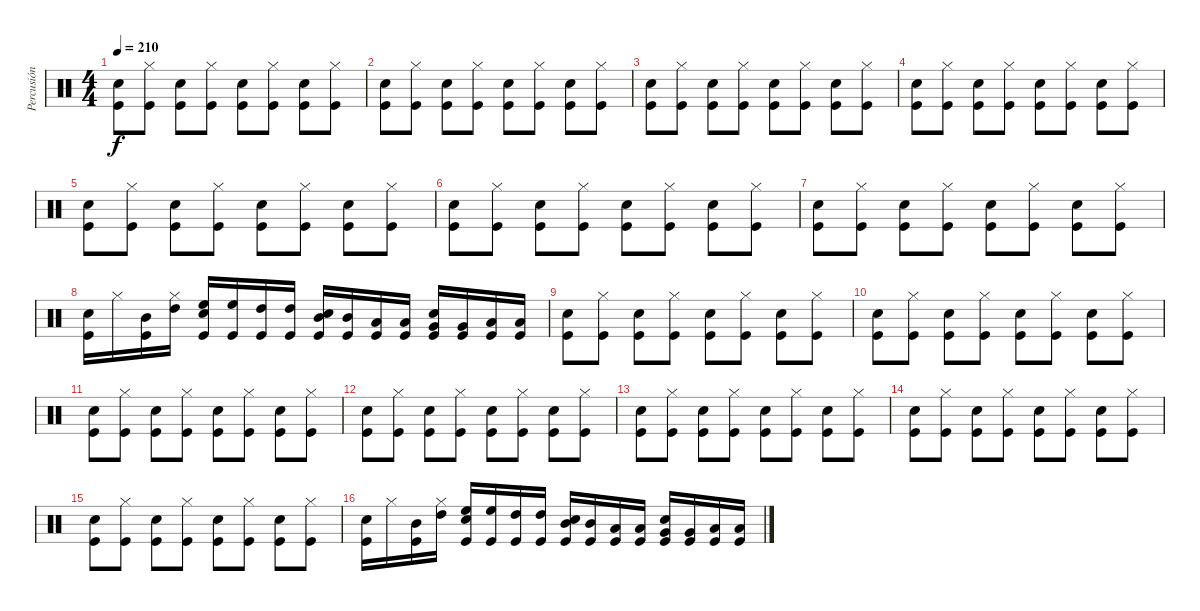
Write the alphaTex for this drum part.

\track ("Percusión" "Percusión") {instrument percussion}
\staff {score}
\articulation defaults
\ts (4 4)
\tempo 210
\clef neutral
\ks c
("Snare (hit) 2" "Kick (hit)").8{dy f} ("Hi-Hat (closed)" "Kick (hit)").8 ("Snare (hit) 2" "Kick (hit)").8 ("Hi-Hat (closed)" "Kick (hit)").8 ("Snare (hit) 2" "Kick (hit)").8 ("Hi-Hat (closed)" "Kick (hit)").8 ("Snare (hit) 2" "Kick (hit)").8 ("Hi-Hat (closed)" "Kick (hit)").8 |
("Snare (hit) 2" "Kick (hit)").8 ("Hi-Hat (closed)" "Kick (hit)").8 ("Snare (hit) 2" "Kick (hit)").8 ("Hi-Hat (closed)" "Kick (hit)").8 ("Snare (hit) 2" "Kick (hit)").8 ("Hi-Hat (closed)" "Kick (hit)").8 ("Snare (hit) 2" "Kick (hit)").8 ("Hi-Hat (closed)" "Kick (hit)").8 |
("Snare (hit) 2" "Kick (hit)").8 ("Hi-Hat (closed)" "Kick (hit)").8 ("Snare (hit) 2" "Kick (hit)").8 ("Hi-Hat (closed)" "Kick (hit)").8 ("Snare (hit) 2" "Kick (hit)").8 ("Hi-Hat (closed)" "Kick (hit)").8 ("Snare (hit) 2" "Kick (hit)").8 ("Hi-Hat (closed)" "Kick (hit)").8 |
("Snare (hit) 2" "Kick (hit)").8 ("Hi-Hat (closed)" "Kick (hit)").8 ("Snare (hit) 2" "Kick (hit)").8 ("Hi-Hat (closed)" "Kick (hit)").8 ("Snare (hit) 2" "Kick (hit)").8 ("Hi-Hat (closed)" "Kick (hit)").8 ("Snare (hit) 2" "Kick (hit)").8 ("Hi-Hat (closed)" "Kick (hit)").8 |
("Snare (hit) 2" "Kick (hit)").8 ("Hi-Hat (closed)" "Kick (hit)").8 ("Snare (hit) 2" "Kick (hit)").8 ("Hi-Hat (closed)" "Kick (hit)").8 ("Snare (hit) 2" "Kick (hit)").8 ("Hi-Hat (closed)" "Kick (hit)").8 ("Snare (hit) 2" "Kick (hit)").8 ("Hi-Hat (closed)" "Kick (hit)").8 |
("Snare (hit) 2" "Kick (hit)").8 ("Hi-Hat (closed)" "Kick (hit)").8 ("Snare (hit) 2" "Kick (hit)").8 ("Hi-Hat (closed)" "Kick (hit)").8 ("Snare (hit) 2" "Kick (hit)").8 ("Hi-Hat (closed)" "Kick (hit)").8 ("Snare (hit) 2" "Kick (hit)").8 ("Hi-Hat (closed)" "Kick (hit)").8 |
("Snare (hit) 2" "Kick (hit)").8 ("Hi-Hat (closed)" "Kick (hit)").8 ("Snare (hit) 2" "Kick (hit)").8 ("Hi-Hat (closed)" "Kick (hit)").8 ("Snare (hit) 2" "Kick (hit)").8 ("Hi-Hat (closed)" "Kick (hit)").8 ("Snare (hit) 2" "Kick (hit)").8 ("Hi-Hat (closed)" "Kick (hit)").8 |
("Snare (hit) 2" "Kick (hit)").16 "Hi-Hat (closed)".16 ("Mid Tom (hit)" "Kick (hit)").16 ("Hi-Hat (closed)" "High Tom (hit)").16 ("High Floor Tom (hit)" "Snare (hit) 2" "Kick (hit)").16 ("High Floor Tom (hit)" "Kick (hit)").16 ("High Tom (hit)" "Kick (hit)").16 ("High Tom (hit)" "Kick (hit)").16 ("Mid Tom (hit)" "Snare (hit) 2" "Kick (hit)").16 ("Mid Tom (hit)" "Kick (hit)").16 ("Low Tom (hit)" "Kick (hit)").16 ("Low Tom (hit)" "Kick (hit)").16 ("Very Low Tom (hit)" "Snare (hit) 2" "Kick (hit)").16 ("Very Low Tom (hit)" "Kick (hit)").16 ("Low Floor Tom (hit)" "Kick (hit)").16 ("Low Floor Tom (hit)" "Kick (hit)").16 |
("Snare (hit) 2" "Kick (hit)").8 ("Hi-Hat (closed)" "Kick (hit)").8 ("Snare (hit) 2" "Kick (hit)").8 ("Hi-Hat (closed)" "Kick (hit)").8 ("Snare (hit) 2" "Kick (hit)").8 ("Hi-Hat (closed)" "Kick (hit)").8 ("Snare (hit) 2" "Kick (hit)").8 ("Hi-Hat (closed)" "Kick (hit)").8 |
("Snare (hit) 2" "Kick (hit)").8 ("Hi-Hat (closed)" "Kick (hit)").8 ("Snare (hit) 2" "Kick (hit)").8 ("Hi-Hat (closed)" "Kick (hit)").8 ("Snare (hit) 2" "Kick (hit)").8 ("Hi-Hat (closed)" "Kick (hit)").8 ("Snare (hit) 2" "Kick (hit)").8 ("Hi-Hat (closed)" "Kick (hit)").8 |
("Snare (hit) 2" "Kick (hit)").8 ("Hi-Hat (closed)" "Kick (hit)").8 ("Snare (hit) 2" "Kick (hit)").8 ("Hi-Hat (closed)" "Kick (hit)").8 ("Snare (hit) 2" "Kick (hit)").8 ("Hi-Hat (closed)" "Kick (hit)").8 ("Snare (hit) 2" "Kick (hit)").8 ("Hi-Hat (closed)" "Kick (hit)").8 |
("Snare (hit) 2" "Kick (hit)").8 ("Hi-Hat (closed)" "Kick (hit)").8 ("Snare (hit) 2" "Kick (hit)").8 ("Hi-Hat (closed)" "Kick (hit)").8 ("Snare (hit) 2" "Kick (hit)").8 ("Hi-Hat (closed)" "Kick (hit)").8 ("Snare (hit) 2" "Kick (hit)").8 ("Hi-Hat (closed)" "Kick (hit)").8 |
("Snare (hit) 2" "Kick (hit)").8 ("Hi-Hat (closed)" "Kick (hit)").8 ("Snare (hit) 2" "Kick (hit)").8 ("Hi-Hat (closed)" "Kick (hit)").8 ("Snare (hit) 2" "Kick (hit)").8 ("Hi-Hat (closed)" "Kick (hit)").8 ("Snare (hit) 2" "Kick (hit)").8 ("Hi-Hat (closed)" "Kick (hit)").8 |
("Snare (hit) 2" "Kick (hit)").8 ("Hi-Hat (closed)" "Kick (hit)").8 ("Snare (hit) 2" "Kick (hit)").8 ("Hi-Hat (closed)" "Kick (hit)").8 ("Snare (hit) 2" "Kick (hit)").8 ("Hi-Hat (closed)" "Kick (hit)").8 ("Snare (hit) 2" "Kick (hit)").8 ("Hi-Hat (closed)" "Kick (hit)").8 |
("Snare (hit) 2" "Kick (hit)").8 ("Hi-Hat (closed)" "Kick (hit)").8 ("Snare (hit) 2" "Kick (hit)").8 ("Hi-Hat (closed)" "Kick (hit)").8 ("Snare (hit) 2" "Kick (hit)").8 ("Hi-Hat (closed)" "Kick (hit)").8 ("Snare (hit) 2" "Kick (hit)").8 ("Hi-Hat (closed)" "Kick (hit)").8 |
("Snare (hit) 2" "Kick (hit)").16 "Hi-Hat (closed)".16 ("Mid Tom (hit)" "Kick (hit)").16 ("Hi-Hat (closed)" "High Tom (hit)").16 ("High Floor Tom (hit)" "Snare (hit) 2" "Kick (hit)").16 ("High Floor Tom (hit)" "Kick (hit)").16 ("High Tom (hit)" "Kick (hit)").16 ("High Tom (hit)" "Kick (hit)").16 ("Mid Tom (hit)" "Snare (hit) 2" "Kick (hit)").16 ("Mid Tom (hit)" "Kick (hit)").16 ("Low Tom (hit)" "Kick (hit)").16 ("Low Tom (hit)" "Kick (hit)").16 ("Very Low Tom (hit)" "Snare (hit) 2" "Kick (hit)").16 ("Very Low Tom (hit)" "Kick (hit)").16 ("Low Floor Tom (hit)" "Kick (hit)").16 ("Low Floor Tom (hit)" "Kick (hit)").16
